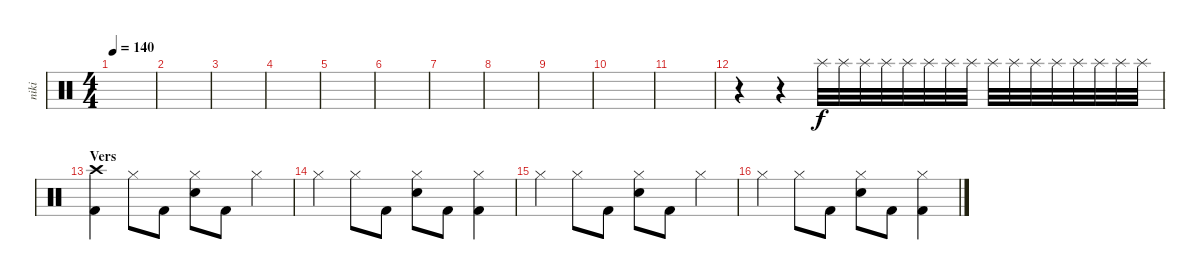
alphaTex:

\track ("niki" "niki") {instrument percussion}
\staff {score}
\articulation defaults
\ts (4 4)
\tempo 140
\clef neutral
\ks c
|
|
|
|
|
|
|
|
|
|
|
r.4{volume 0} r.4 "Splash (hit)".32{volume 13} "Splash (hit)".32 "Splash (hit)".32 "Splash (hit)".32 "Splash (hit)".32 "Splash (hit)".32 "Splash (hit)".32 "Splash (hit)".32 "Splash (hit)".32 "Splash (hit)".32 "Splash (hit)".32 "Splash (hit)".32 "Splash (hit)".32 "Splash (hit)".32 "Splash (hit)".32 "Splash (hit)".32 |
\section ("" "Vers")
("Crash high (hit)" "Kick (hit) 2").4 "Hi-Hat (closed)".8 "Kick (hit) 2".8 ("Hi-Hat (closed)" "Snare (hit) 2").8 "Kick (hit) 2".8 "Hi-Hat (closed)".4 |
"Hi-Hat (closed)".4 "Hi-Hat (closed)".8 "Kick (hit) 2".8 ("Hi-Hat (closed)" "Snare (hit) 2").8 "Kick (hit) 2".8 ("Hi-Hat (closed)" "Kick (hit) 2").4 |
"Hi-Hat (closed)".4 "Hi-Hat (closed)".8 "Kick (hit) 2".8 ("Hi-Hat (closed)" "Snare (hit) 2").8 "Kick (hit) 2".8 "Hi-Hat (closed)".4 |
"Hi-Hat (closed)".4 "Hi-Hat (closed)".8 "Kick (hit) 2".8 ("Hi-Hat (closed)" "Snare (hit) 2").8 "Kick (hit) 2".8 ("Hi-Hat (closed)" "Kick (hit) 2").4
